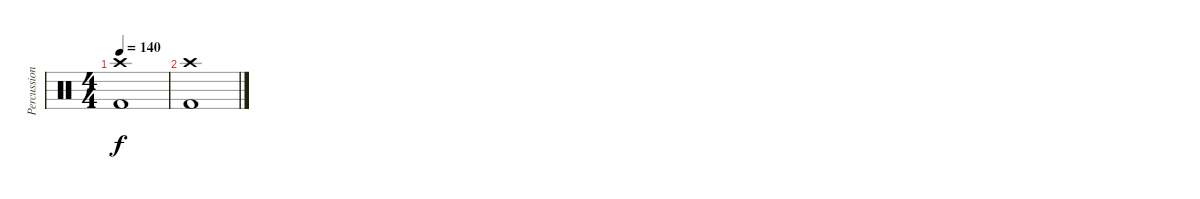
\track ("Percussion" "Percussion") {instrument percussion}
\staff {score}
\articulation defaults
\ts (4 4)
\tempo 140
\clef neutral
\ks c
("Crash high (hit)" "Kick (hit) 2").1{dy f} |
("Crash high (hit)" "Kick (hit) 2").1
